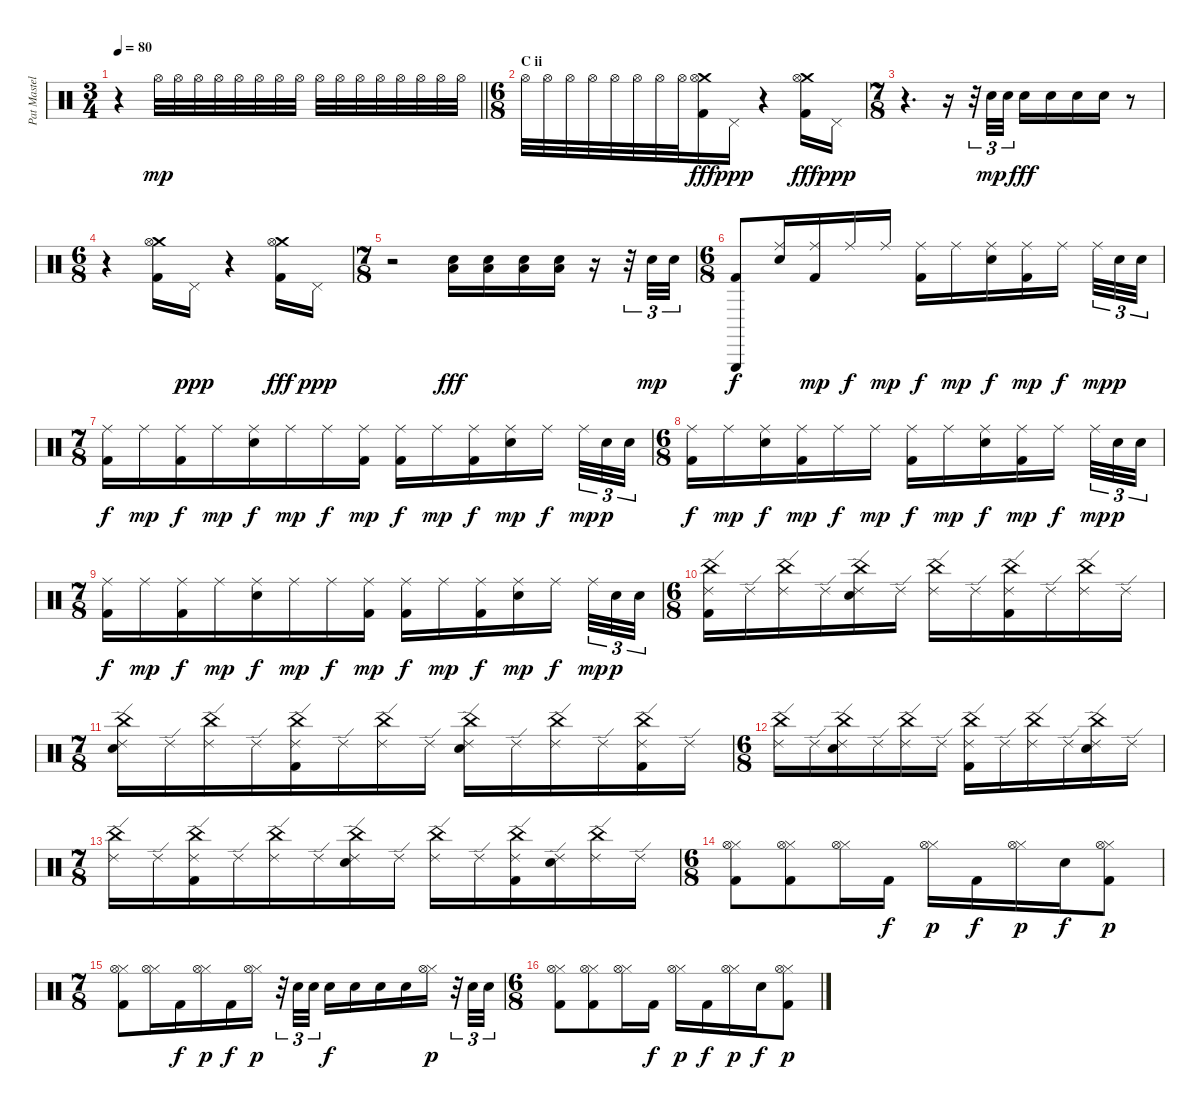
\track ("Pat Mastelotto (Traps / Buttons)" "Pat Mastel") {instrument percussion}
\staff {score}
\articulation defaults
\ts (3 4)
\tempo 80
\clef neutral
\barLineRight lightlight
\ks c
r.4{dy pp volume 0} "Hi-Hat (open)".32{dy mp volume 11} "Hi-Hat (open)".32 "Hi-Hat (open)".32 "Hi-Hat (open)".32 "Hi-Hat (open)".32 "Hi-Hat (open)".32 "Hi-Hat (open)".32 "Hi-Hat (open)".32 "Hi-Hat (open)".32 "Hi-Hat (open)".32 "Hi-Hat (open)".32 "Hi-Hat (open)".32 "Hi-Hat (open)".32 "Hi-Hat (open)".32 "Hi-Hat (open)".32 "Hi-Hat (open)".32 |
\ts (6 8)
\section ("" "C ii")
"Hi-Hat (open)".32 "Hi-Hat (open)".32 "Hi-Hat (open)".32 "Hi-Hat (open)".32 "Hi-Hat (open)".32 "Hi-Hat (open)".32 "Hi-Hat (open)".32 "Hi-Hat (open)".32 ("Crash medium (hit)" "Hi-Hat (open)" "Kick (hit) 2").16{dy fff} "Pedal Hi-Hat (hit)".16{dy ppp} r.4 ("Crash medium (hit)" "Hi-Hat (open)" "Kick (hit) 2").16{dy fff} "Pedal Hi-Hat (hit)".16{dy ppp} |
\ts (7 8)
r.4{d} r.16 r.32{tu (3 2)} "Electric Snare (hit)".32{tu (3 2) dy mp} "Electric Snare (hit)".32{tu (3 2)} "Electric Snare (hit)".16{dy fff} "Electric Snare (hit)".16 "Electric Snare (hit)".16 "Electric Snare (hit)".16 r.8 |
\ts (6 8)
r.4 ("Crash medium (hit)" "Hi-Hat (open)" "Kick (hit) 2").16 "Pedal Hi-Hat (hit)".16{dy ppp} r.4 ("Crash medium (hit)" "Hi-Hat (open)" "Kick (hit) 2").16{dy fff} "Pedal Hi-Hat (hit)".16{dy ppp} |
\ts (7 8)
r.2 ("Electric Snare (hit)" "Low Floor Tom (hit)").16{dy fff} ("Electric Snare (hit)" "Low Floor Tom (hit)").16 ("Electric Snare (hit)" "Low Floor Tom (hit)").16 ("Electric Snare (hit)" "Low Floor Tom (hit)").16 r.16 r.32{tu (3 2)} "Electric Snare (hit)".32{tu (3 2) dy mp} "Electric Snare (hit)".32{tu (3 2)} |
\ts (6 8)
("Triangle (hit)" "Kick (hit) 2").8{dy f} ("Ride (middle)" "Electric Snare (hit)").16 ("Ride (middle)" "Kick (hit) 2").16{dy mp} "Ride (middle)".16{dy f} "Ride (middle)".16{dy mp} ("Ride (middle)" "Kick (hit) 2").16{dy f} "Ride (middle)".16{dy mp} ("Ride (middle)" "Electric Snare (hit)").16{dy f} ("Ride (middle)" "Kick (hit) 2").16{dy mp} "Ride (middle)".16{dy f beam splitsecondary} "Ride (middle)".32{tu (3 2) dy mp} "Electric Snare (hit)".32{tu (3 2) dy p} "Electric Snare (hit)".32{tu (3 2)} |
\ts (7 8)
("Ride (middle)" "Kick (hit) 2").16{dy f} "Ride (middle)".16{dy mp} ("Ride (middle)" "Kick (hit) 2").16{dy f} "Ride (middle)".16{dy mp} ("Ride (middle)" "Electric Snare (hit)").16{dy f} "Ride (middle)".16{dy mp} "Ride (middle)".16{dy f} ("Ride (middle)" "Kick (hit) 2").16{dy mp} ("Ride (middle)" "Kick (hit) 2").16{dy f} "Ride (middle)".16{dy mp} ("Ride (middle)" "Kick (hit) 2").16{dy f} ("Ride (middle)" "Electric Snare (hit)").16{dy mp} "Ride (middle)".16{dy f beam splitsecondary} "Ride (middle)".32{tu (3 2) dy mp} "Electric Snare (hit)".32{tu (3 2) dy p} "Electric Snare (hit)".32{tu (3 2)} |
\ts (6 8)
("Ride (middle)" "Kick (hit) 2").16{dy f} "Ride (middle)".16{dy mp} ("Ride (middle)" "Electric Snare (hit)").16{dy f} ("Ride (middle)" "Kick (hit) 2").16{dy mp} "Ride (middle)".16{dy f} "Ride (middle)".16{dy mp} ("Ride (middle)" "Kick (hit) 2").16{dy f} "Ride (middle)".16{dy mp} ("Ride (middle)" "Electric Snare (hit)").16{dy f} ("Ride (middle)" "Kick (hit) 2").16{dy mp} "Ride (middle)".16{dy f beam splitsecondary} "Ride (middle)".32{tu (3 2) dy mp} "Electric Snare (hit)".32{tu (3 2) dy p} "Electric Snare (hit)".32{tu (3 2)} |
\ts (7 8)
("Ride (middle)" "Kick (hit) 2").16{dy f} "Ride (middle)".16{dy mp} ("Ride (middle)" "Kick (hit) 2").16{dy f} "Ride (middle)".16{dy mp} ("Ride (middle)" "Electric Snare (hit)").16{dy f} "Ride (middle)".16{dy mp} "Ride (middle)".16{dy f} ("Ride (middle)" "Kick (hit) 2").16{dy mp} ("Ride (middle)" "Kick (hit) 2").16{dy f} "Ride (middle)".16{dy mp} ("Ride (middle)" "Kick (hit) 2").16{dy f} ("Ride (middle)" "Electric Snare (hit)").16{dy mp} "Ride (middle)".16{dy f beam splitsecondary} "Ride (middle)".32{tu (3 2) dy mp} "Electric Snare (hit)".32{tu (3 2) dy p} "Electric Snare (hit)".32{tu (3 2)} |
\ts (6 8)
("Ride (edge) 2" "China (hit)" "Kick (hit) 2").16 "Ride (edge) 2".16 ("Ride (edge) 2" "China (hit)").16 "Ride (edge) 2".16 ("Ride (edge) 2" "China (hit)" "Electric Snare (hit)").16 "Ride (edge) 2".16 ("Ride (edge) 2" "China (hit)").16 "Ride (edge) 2".16 ("Ride (edge) 2" "China (hit)" "Kick (hit) 2").16 "Ride (edge) 2".16 ("Ride (edge) 2" "China (hit)").16 "Ride (edge) 2".16 |
\ts (7 8)
("Ride (edge) 2" "China (hit)" "Electric Snare (hit)").16 "Ride (edge) 2".16 ("Ride (edge) 2" "China (hit)").16 "Ride (edge) 2".16 ("Ride (edge) 2" "China (hit)" "Kick (hit) 2").16 "Ride (edge) 2".16 ("Ride (edge) 2" "China (hit)").16 "Ride (edge) 2".16 ("Ride (edge) 2" "China (hit)" "Electric Snare (hit)").16 "Ride (edge) 2".16 ("Ride (edge) 2" "China (hit)").16 "Ride (edge) 2".16 ("Ride (edge) 2" "China (hit)" "Kick (hit) 2").16 "Ride (edge) 2".16 |
\ts (6 8)
("Ride (edge) 2" "China (hit)").16 "Ride (edge) 2".16 ("Ride (edge) 2" "China (hit)" "Electric Snare (hit)").16 "Ride (edge) 2".16 ("Ride (edge) 2" "China (hit)").16 "Ride (edge) 2".16 ("Ride (edge) 2" "China (hit)" "Kick (hit) 2").16 "Ride (edge) 2".16 ("Ride (edge) 2" "China (hit)").16 "Ride (edge) 2".16 ("Ride (edge) 2" "China (hit)" "Electric Snare (hit)").16 "Ride (edge) 2".16 |
\ts (7 8)
("Ride (edge) 2" "China (hit)").16 "Ride (edge) 2".16 ("Ride (edge) 2" "China (hit)" "Kick (hit) 2").16 "Ride (edge) 2".16 ("Ride (edge) 2" "China (hit)").16 "Ride (edge) 2".16 ("Ride (edge) 2" "China (hit)" "Electric Snare (hit)").16 "Ride (edge) 2".16 ("Ride (edge) 2" "China (hit)").16 "Ride (edge) 2".16 ("Ride (edge) 2" "China (hit)" "Kick (hit) 2").16 ("Ride (edge) 2" "Electric Snare (hit)").16 ("Ride (edge) 2" "China (hit)").16 "Ride (edge) 2".16 |
\ts (6 8)
("Hi-Hat (closed)" "Hi-Hat (open)" "Kick (hit) 2").8 ("Hi-Hat (closed)" "Hi-Hat (open)" "Kick (hit) 2").8 ("Hi-Hat (closed)" "Hi-Hat (open)").16 "Kick (hit) 2".16{dy f} ("Hi-Hat (closed)" "Hi-Hat (open)").16{dy p} "Kick (hit) 2".16{dy f} ("Hi-Hat (closed)" "Hi-Hat (open)").16{dy p} "Electric Snare (hit)".16{dy f} ("Hi-Hat (closed)" "Hi-Hat (open)" "Kick (hit) 2").8{dy p} |
\ts (7 8)
("Hi-Hat (closed)" "Hi-Hat (open)" "Kick (hit) 2").8 ("Hi-Hat (closed)" "Hi-Hat (open)").16 "Kick (hit) 2".16{dy f} ("Hi-Hat (closed)" "Hi-Hat (open)").16{dy p} "Kick (hit) 2".16{dy f} ("Hi-Hat (closed)" "Hi-Hat (open)").16{dy p} r.32{tu (3 2)} "Electric Snare (hit)".32{tu (3 2)} "Electric Snare (hit)".32{tu (3 2)} "Electric Snare (hit)".16{dy f} "Electric Snare (hit)".16 "Electric Snare (hit)".16 "Electric Snare (hit)".16 ("Hi-Hat (closed)" "Hi-Hat (open)").16{dy p} r.32{tu (3 2)} "Electric Snare (hit)".32{tu (3 2)} "Electric Snare (hit)".32{tu (3 2)} |
\ts (6 8)
("Hi-Hat (closed)" "Hi-Hat (open)" "Kick (hit) 2").8 ("Hi-Hat (closed)" "Hi-Hat (open)" "Kick (hit) 2").8 ("Hi-Hat (closed)" "Hi-Hat (open)").16 "Kick (hit) 2".16{dy f} ("Hi-Hat (closed)" "Hi-Hat (open)").16{dy p} "Kick (hit) 2".16{dy f} ("Hi-Hat (closed)" "Hi-Hat (open)").16{dy p} "Electric Snare (hit)".16{dy f} ("Hi-Hat (closed)" "Hi-Hat (open)" "Kick (hit) 2").8{dy p}
